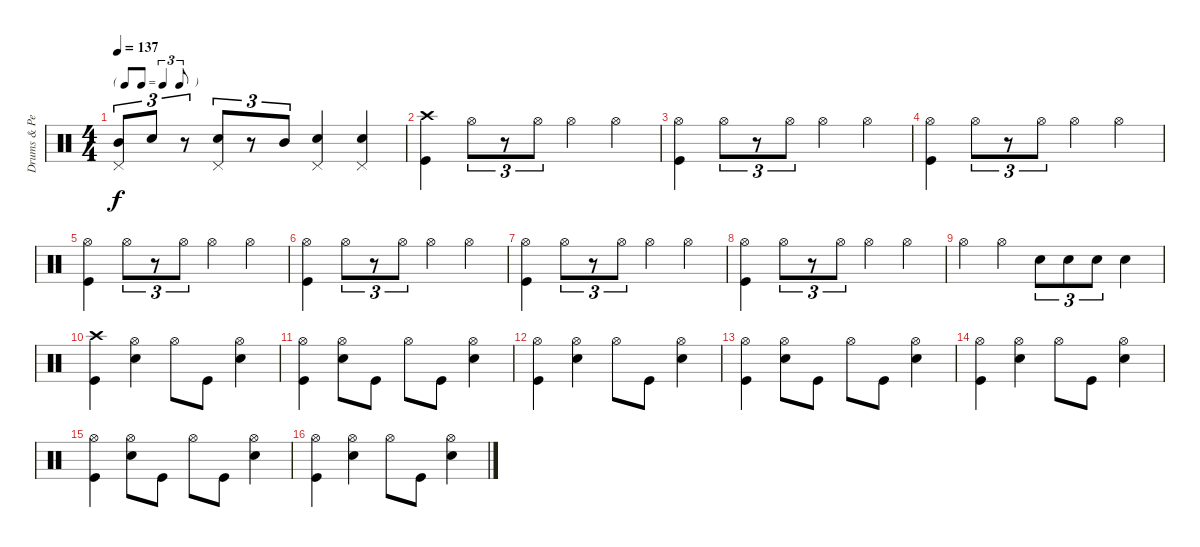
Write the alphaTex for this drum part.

\track ("Drums & Percussion (Matt)" "Drums & Pe") {instrument percussion}
\staff {score}
\articulation defaults
\ts (4 4)
\tf triplet8th
\tempo 137
\clef neutral
\ks c
("Mid Tom (hit)" "Pedal Hi-Hat (hit)").8{tu (3 2) dy f} "Electric Snare (hit)".8{tu (3 2)} r.8{tu (3 2)} ("Electric Snare (hit)" "Pedal Hi-Hat (hit)").8{tu (3 2)} r.8{tu (3 2)} "Mid Tom (hit)".8{tu (3 2)} ("Electric Snare (hit)" "Pedal Hi-Hat (hit)").4 ("Electric Snare (hit)" "Pedal Hi-Hat (hit)").4 |
("Crash high (hit)" "Kick (hit)").4 "Hi-Hat (open)".8{tu (3 2)} r.8{tu (3 2)} "Hi-Hat (open)".8{tu (3 2)} "Hi-Hat (open)".4 "Hi-Hat (open)".4 |
("Hi-Hat (open)" "Kick (hit)").4 "Hi-Hat (open)".8{tu (3 2)} r.8{tu (3 2)} "Hi-Hat (open)".8{tu (3 2)} "Hi-Hat (open)".4 "Hi-Hat (open)".4 |
("Hi-Hat (open)" "Kick (hit)").4 "Hi-Hat (open)".8{tu (3 2)} r.8{tu (3 2)} "Hi-Hat (open)".8{tu (3 2)} "Hi-Hat (open)".4 "Hi-Hat (open)".4 |
("Hi-Hat (open)" "Kick (hit)").4 "Hi-Hat (open)".8{tu (3 2)} r.8{tu (3 2)} "Hi-Hat (open)".8{tu (3 2)} "Hi-Hat (open)".4 "Hi-Hat (open)".4 |
("Hi-Hat (open)" "Kick (hit)").4 "Hi-Hat (open)".8{tu (3 2)} r.8{tu (3 2)} "Hi-Hat (open)".8{tu (3 2)} "Hi-Hat (open)".4 "Hi-Hat (open)".4 |
("Hi-Hat (open)" "Kick (hit)").4 "Hi-Hat (open)".8{tu (3 2)} r.8{tu (3 2)} "Hi-Hat (open)".8{tu (3 2)} "Hi-Hat (open)".4 "Hi-Hat (open)".4 |
("Hi-Hat (open)" "Kick (hit)").4 "Hi-Hat (open)".8{tu (3 2)} r.8{tu (3 2)} "Hi-Hat (open)".8{tu (3 2)} "Hi-Hat (open)".4 "Hi-Hat (open)".4 |
"Hi-Hat (open)".4 "Hi-Hat (open)".4 "Electric Snare (hit)".8{tu (3 2)} "Electric Snare (hit)".8{tu (3 2)} "Electric Snare (hit)".8{tu (3 2)} "Electric Snare (hit)".4 |
("Crash high (hit)" "Kick (hit)").4 ("Hi-Hat (open)" "Electric Snare (hit)").4 "Hi-Hat (open)".8 "Kick (hit)".8 ("Hi-Hat (open)" "Electric Snare (hit)").4 |
("Hi-Hat (open)" "Kick (hit)").4 ("Hi-Hat (open)" "Electric Snare (hit)").8 "Kick (hit)".8 "Hi-Hat (open)".8 "Kick (hit)".8 ("Hi-Hat (open)" "Electric Snare (hit)").4 |
("Hi-Hat (open)" "Kick (hit)").4 ("Hi-Hat (open)" "Electric Snare (hit)").4 "Hi-Hat (open)".8 "Kick (hit)".8 ("Hi-Hat (open)" "Electric Snare (hit)").4 |
("Hi-Hat (open)" "Kick (hit)").4 ("Hi-Hat (open)" "Electric Snare (hit)").8 "Kick (hit)".8 "Hi-Hat (open)".8 "Kick (hit)".8 ("Hi-Hat (open)" "Electric Snare (hit)").4 |
("Hi-Hat (open)" "Kick (hit)").4 ("Hi-Hat (open)" "Electric Snare (hit)").4 "Hi-Hat (open)".8 "Kick (hit)".8 ("Hi-Hat (open)" "Electric Snare (hit)").4 |
("Hi-Hat (open)" "Kick (hit)").4 ("Hi-Hat (open)" "Electric Snare (hit)").8 "Kick (hit)".8 "Hi-Hat (open)".8 "Kick (hit)".8 ("Hi-Hat (open)" "Electric Snare (hit)").4 |
("Hi-Hat (open)" "Kick (hit)").4 ("Hi-Hat (open)" "Electric Snare (hit)").4 "Hi-Hat (open)".8 "Kick (hit)".8 ("Hi-Hat (open)" "Electric Snare (hit)").4
